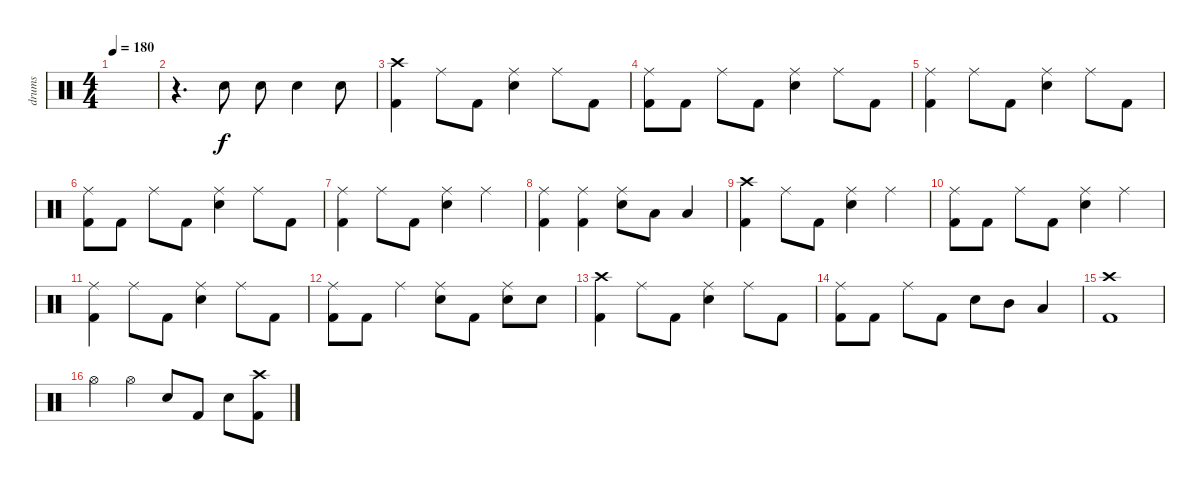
\track ("drums" "drums") {instrument percussion}
\staff {score}
\articulation defaults
\ts (4 4)
\tempo 180
\tempo 140
\tempo 180
\clef neutral
\ks c
|
r.4{d} "Electric Snare (hit)".8 "Electric Snare (hit)".8 "Electric Snare (hit)".4 "Electric Snare (hit)".8 |
("Crash high (hit)" "Kick (hit) 2").4 "Ride (middle)".8 "Kick (hit) 2".8 ("Ride (middle)" "Electric Snare (hit)").4 "Ride (middle)".8 "Kick (hit) 2".8 |
("Ride (middle)" "Kick (hit) 2").8 "Kick (hit) 2".8 "Ride (middle)".8 "Kick (hit) 2".8 ("Ride (middle)" "Electric Snare (hit)").4 "Ride (middle)".8 "Kick (hit) 2".8 |
("Ride (middle)" "Kick (hit) 2").4 "Ride (middle)".8 "Kick (hit) 2".8 ("Ride (middle)" "Electric Snare (hit)").4 "Ride (middle)".8 "Kick (hit) 2".8 |
("Ride (middle)" "Kick (hit) 2").8 "Kick (hit) 2".8 "Ride (middle)".8 "Kick (hit) 2".8 ("Ride (middle)" "Electric Snare (hit)").4 "Ride (middle)".8 "Kick (hit) 2".8 |
("Ride (middle)" "Kick (hit) 2").4 "Ride (middle)".8 "Kick (hit) 2".8 ("Ride (middle)" "Electric Snare (hit)").4 "Ride (middle)".4 |
("Ride (middle)" "Kick (hit) 2").4 ("Ride (middle)" "Kick (hit) 2").4 ("Ride (middle)" "Electric Snare (hit)").8 "Low Tom (hit)".8 "Low Floor Tom (hit)".4 |
("Crash high (hit)" "Kick (hit) 2").4 "Ride (middle)".8 "Kick (hit) 2".8 ("Ride (middle)" "Electric Snare (hit)").4 "Ride (middle)".4 |
("Ride (middle)" "Kick (hit) 2").8 "Kick (hit) 2".8 "Ride (middle)".8 "Kick (hit) 2".8 ("Ride (middle)" "Electric Snare (hit)").4 "Ride (middle)".4 |
("Ride (middle)" "Kick (hit) 2").4 "Ride (middle)".8 "Kick (hit) 2".8 ("Ride (middle)" "Electric Snare (hit)").4 "Ride (middle)".8 "Kick (hit) 2".8 |
("Ride (middle)" "Kick (hit) 2").8 "Kick (hit) 2".8 "Ride (middle)".4 ("Ride (middle)" "Electric Snare (hit)").8 "Kick (hit) 2".8 ("Ride (middle)" "Electric Snare (hit)").8 "Electric Snare (hit)".8 |
("Crash high (hit)" "Kick (hit) 2").4 "Ride (middle)".8 "Kick (hit) 2".8 ("Ride (middle)" "Electric Snare (hit)").4 "Ride (middle)".8 "Kick (hit) 2".8 |
("Ride (middle)" "Kick (hit) 2").8 "Kick (hit) 2".8 "Ride (middle)".8 "Kick (hit) 2".8 "Electric Snare (hit)".8 "Mid Tom (hit)".8 "Low Tom (hit)".4 |
("Crash high (hit)" "Kick (hit) 2").1 |
"Hi-Hat (open)".4 "Hi-Hat (open)".4 "Electric Snare (hit)".8 "Kick (hit) 2".8 "Electric Snare (hit)".8 ("Crash high (hit)" "Kick (hit) 2").8
